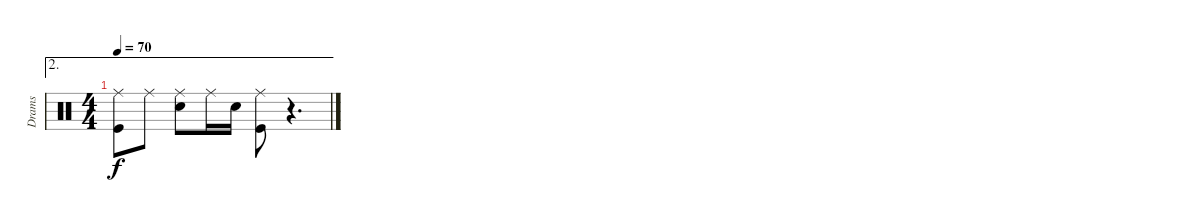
\track ("Drams" "Drams") {instrument percussion}
\staff {score}
\articulation defaults
\ae 2
\ts (4 4)
\tempo 70
\clef neutral
\ks aminor
("Kick (hit)" "Ride (middle)").8{dy f} "Ride (middle)".8 ("Electric Snare (hit)" "Ride (middle)").8 "Ride (middle)".16 "Electric Snare (hit)".16 ("Ride (middle)" "Kick (hit)").8 r.4{d}
